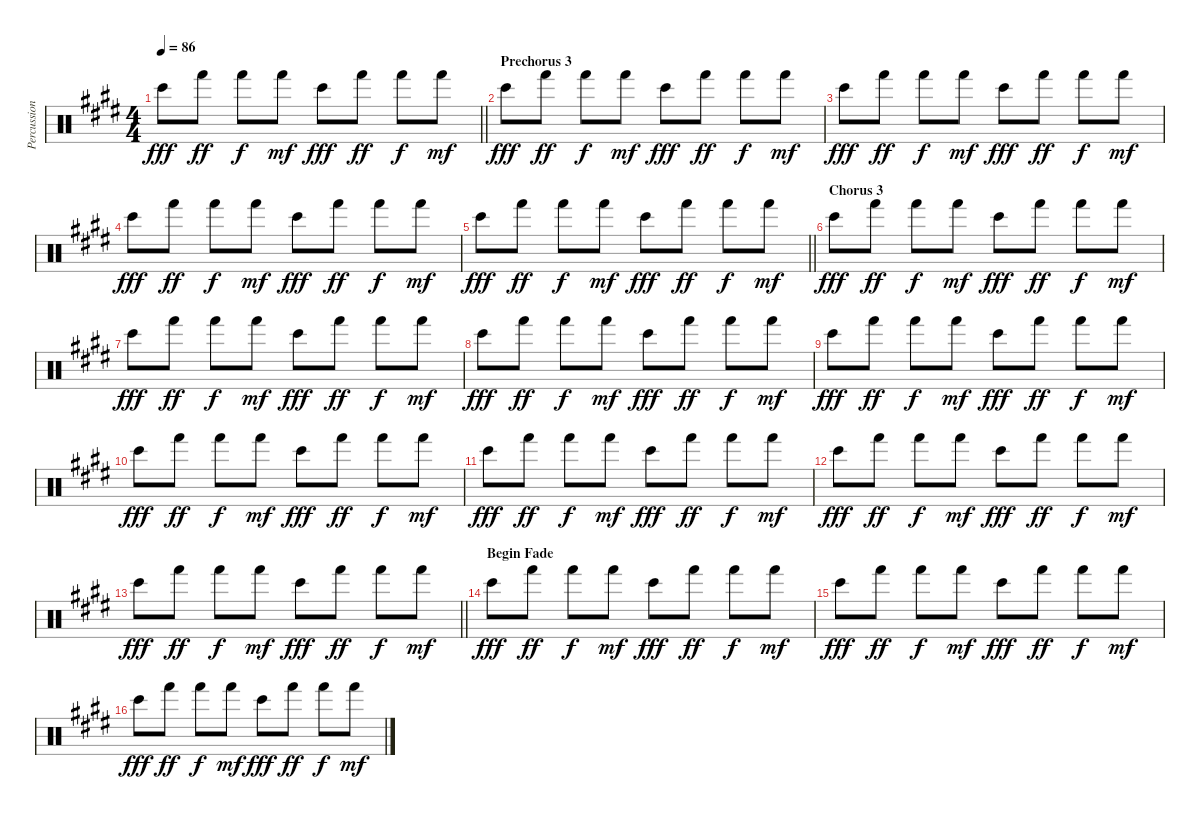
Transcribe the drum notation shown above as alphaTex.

\track ("Percussion" "Percussion") {instrument percussion}
\staff {score}
\articulation defaults
\ts (4 4)
\tempo 86
\clef neutral
\barLineRight lightlight
\ks e "Bongo High (hit)".8{dy fff} "Hand (hit)".8{dy ff} "Hand (hit)".8{dy f} "Hand (hit)".8{dy mf} "Bongo High (hit)".8{dy fff} "Hand (hit)".8{dy ff} "Hand (hit)".8{dy f} "Hand (hit)".8{dy mf}
|
\section ("" "Prechorus 3")
"Bongo High (hit)".8{dy fff} "Hand (hit)".8{dy ff} "Hand (hit)".8{dy f} "Hand (hit)".8{dy mf} "Bongo High (hit)".8{dy fff} "Hand (hit)".8{dy ff} "Hand (hit)".8{dy f} "Hand (hit)".8{dy mf} |
"Bongo High (hit)".8{dy fff} "Hand (hit)".8{dy ff} "Hand (hit)".8{dy f} "Hand (hit)".8{dy mf} "Bongo High (hit)".8{dy fff} "Hand (hit)".8{dy ff} "Hand (hit)".8{dy f} "Hand (hit)".8{dy mf} |
"Bongo High (hit)".8{dy fff} "Hand (hit)".8{dy ff} "Hand (hit)".8{dy f} "Hand (hit)".8{dy mf} "Bongo High (hit)".8{dy fff} "Hand (hit)".8{dy ff} "Hand (hit)".8{dy f} "Hand (hit)".8{dy mf} |
\barLineRight lightlight "Bongo High (hit)".8{dy fff} "Hand (hit)".8{dy ff} "Hand (hit)".8{dy f} "Hand (hit)".8{dy mf} "Bongo High (hit)".8{dy fff} "Hand (hit)".8{dy ff} "Hand (hit)".8{dy f} "Hand (hit)".8{dy mf}
|
\section ("" "Chorus 3")
"Bongo High (hit)".8{dy fff} "Hand (hit)".8{dy ff} "Hand (hit)".8{dy f} "Hand (hit)".8{dy mf} "Bongo High (hit)".8{dy fff} "Hand (hit)".8{dy ff} "Hand (hit)".8{dy f} "Hand (hit)".8{dy mf} |
"Bongo High (hit)".8{dy fff} "Hand (hit)".8{dy ff} "Hand (hit)".8{dy f} "Hand (hit)".8{dy mf} "Bongo High (hit)".8{dy fff} "Hand (hit)".8{dy ff} "Hand (hit)".8{dy f} "Hand (hit)".8{dy mf} |
"Bongo High (hit)".8{dy fff} "Hand (hit)".8{dy ff} "Hand (hit)".8{dy f} "Hand (hit)".8{dy mf} "Bongo High (hit)".8{dy fff} "Hand (hit)".8{dy ff} "Hand (hit)".8{dy f} "Hand (hit)".8{dy mf} |
"Bongo High (hit)".8{dy fff} "Hand (hit)".8{dy ff} "Hand (hit)".8{dy f} "Hand (hit)".8{dy mf} "Bongo High (hit)".8{dy fff} "Hand (hit)".8{dy ff} "Hand (hit)".8{dy f} "Hand (hit)".8{dy mf} |
"Bongo High (hit)".8{dy fff} "Hand (hit)".8{dy ff} "Hand (hit)".8{dy f} "Hand (hit)".8{dy mf} "Bongo High (hit)".8{dy fff} "Hand (hit)".8{dy ff} "Hand (hit)".8{dy f} "Hand (hit)".8{dy mf} |
"Bongo High (hit)".8{dy fff} "Hand (hit)".8{dy ff} "Hand (hit)".8{dy f} "Hand (hit)".8{dy mf} "Bongo High (hit)".8{dy fff} "Hand (hit)".8{dy ff} "Hand (hit)".8{dy f} "Hand (hit)".8{dy mf} |
"Bongo High (hit)".8{dy fff} "Hand (hit)".8{dy ff} "Hand (hit)".8{dy f} "Hand (hit)".8{dy mf} "Bongo High (hit)".8{dy fff} "Hand (hit)".8{dy ff} "Hand (hit)".8{dy f} "Hand (hit)".8{dy mf} |
\barLineRight lightlight "Bongo High (hit)".8{dy fff} "Hand (hit)".8{dy ff} "Hand (hit)".8{dy f} "Hand (hit)".8{dy mf} "Bongo High (hit)".8{dy fff} "Hand (hit)".8{dy ff} "Hand (hit)".8{dy f} "Hand (hit)".8{dy mf}
|
\section ("" "Begin Fade")
"Bongo High (hit)".8{dy fff} "Hand (hit)".8{dy ff} "Hand (hit)".8{dy f} "Hand (hit)".8{dy mf} "Bongo High (hit)".8{dy fff} "Hand (hit)".8{dy ff} "Hand (hit)".8{dy f} "Hand (hit)".8{dy mf} |
"Bongo High (hit)".8{dy fff} "Hand (hit)".8{dy ff} "Hand (hit)".8{dy f} "Hand (hit)".8{dy mf} "Bongo High (hit)".8{dy fff} "Hand (hit)".8{dy ff} "Hand (hit)".8{dy f} "Hand (hit)".8{dy mf} |
"Bongo High (hit)".8{dy fff} "Hand (hit)".8{dy ff} "Hand (hit)".8{dy f} "Hand (hit)".8{dy mf} "Bongo High (hit)".8{dy fff} "Hand (hit)".8{dy ff} "Hand (hit)".8{dy f} "Hand (hit)".8{dy mf}
